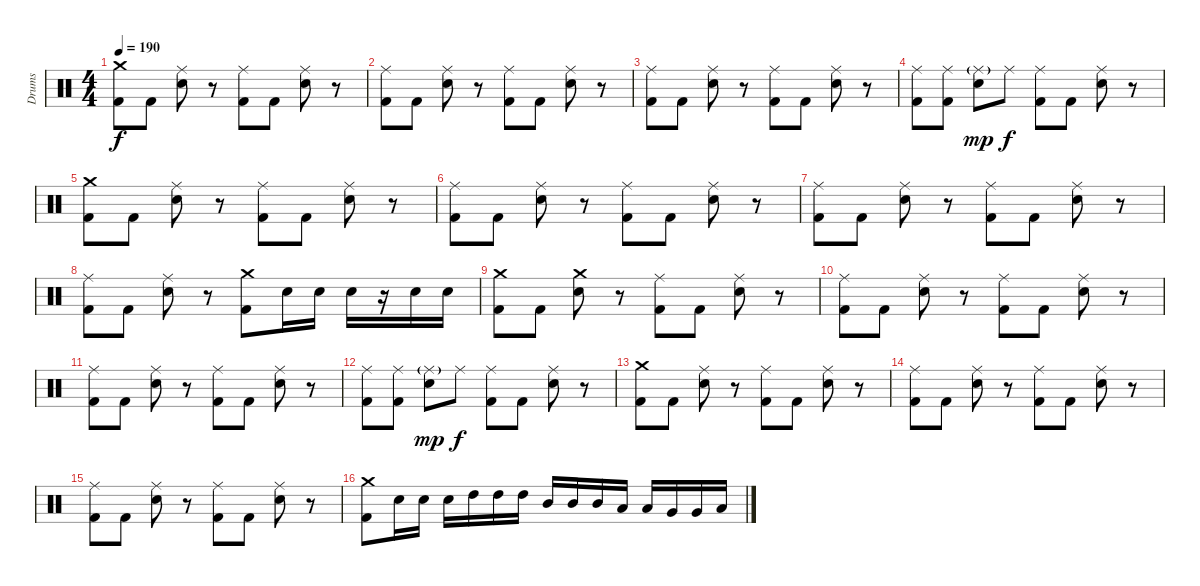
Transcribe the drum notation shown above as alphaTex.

\track ("Drums" "Drums") {instrument percussion}
\staff {score}
\articulation defaults
\ts (4 4)
\tempo 190
\clef neutral
\ks c
("Crash medium (hit)" "Kick (hit) 2").8{dy f} "Kick (hit) 2".8 ("Ride (middle)" "Electric Snare (hit)").8 r.8 ("Ride (middle)" "Kick (hit) 2").8 "Kick (hit) 2".8 ("Ride (middle)" "Electric Snare (hit)").8 r.8 |
("Ride (middle)" "Kick (hit) 2").8 "Kick (hit) 2".8 ("Ride (middle)" "Electric Snare (hit)").8 r.8 ("Ride (middle)" "Kick (hit) 2").8 "Kick (hit) 2".8 ("Ride (middle)" "Electric Snare (hit)").8 r.8 |
("Ride (middle)" "Kick (hit) 2").8 "Kick (hit) 2".8 ("Ride (middle)" "Electric Snare (hit)").8 r.8 ("Ride (middle)" "Kick (hit) 2").8 "Kick (hit) 2".8 ("Ride (middle)" "Electric Snare (hit)").8 r.8 |
("Ride (middle)" "Kick (hit) 2").8 ("Ride (middle)" "Kick (hit) 2").8 ("Ride (middle)"{g} "Electric Snare (hit)").8{dy mp} "Ride (middle)".8{dy f} ("Ride (middle)" "Kick (hit) 2").8 "Kick (hit) 2".8 ("Ride (middle)" "Electric Snare (hit)").8 r.8 |
("Crash medium (hit)" "Kick (hit) 2").8 "Kick (hit) 2".8 ("Ride (middle)" "Electric Snare (hit)").8 r.8 ("Ride (middle)" "Kick (hit) 2").8 "Kick (hit) 2".8 ("Ride (middle)" "Electric Snare (hit)").8 r.8 |
("Ride (middle)" "Kick (hit) 2").8 "Kick (hit) 2".8 ("Ride (middle)" "Electric Snare (hit)").8 r.8 ("Ride (middle)" "Kick (hit) 2").8 "Kick (hit) 2".8 ("Ride (middle)" "Electric Snare (hit)").8 r.8 |
("Ride (middle)" "Kick (hit) 2").8 "Kick (hit) 2".8 ("Ride (middle)" "Electric Snare (hit)").8 r.8 ("Ride (middle)" "Kick (hit) 2").8 "Kick (hit) 2".8 ("Ride (middle)" "Electric Snare (hit)").8 r.8 |
("Ride (middle)" "Kick (hit) 2").8 "Kick (hit) 2".8 ("Ride (middle)" "Electric Snare (hit)").8 r.8 ("Crash medium (hit)" "Kick (hit) 2").8 "Electric Snare (hit)".16 "Electric Snare (hit)".16 "Electric Snare (hit)".16 r.16 "Electric Snare (hit)".16 "Electric Snare (hit)".16 |
("Crash medium (hit)" "Kick (hit) 2").8 "Kick (hit) 2".8 ("Crash medium (hit)" "Electric Snare (hit)").8 r.8 ("Ride (middle)" "Kick (hit) 2").8 "Kick (hit) 2".8 ("Ride (middle)" "Electric Snare (hit)").8 r.8 |
("Ride (middle)" "Kick (hit) 2").8 "Kick (hit) 2".8 ("Ride (middle)" "Electric Snare (hit)").8 r.8 ("Ride (middle)" "Kick (hit) 2").8 "Kick (hit) 2".8 ("Ride (middle)" "Electric Snare (hit)").8 r.8 |
("Ride (middle)" "Kick (hit) 2").8 "Kick (hit) 2".8 ("Ride (middle)" "Electric Snare (hit)").8 r.8 ("Ride (middle)" "Kick (hit) 2").8 "Kick (hit) 2".8 ("Ride (middle)" "Electric Snare (hit)").8 r.8 |
("Ride (middle)" "Kick (hit) 2").8 ("Ride (middle)" "Kick (hit) 2").8 ("Ride (middle)"{g} "Electric Snare (hit)").8{dy mp} "Ride (middle)".8{dy f} ("Ride (middle)" "Kick (hit) 2").8 "Kick (hit) 2".8 ("Ride (middle)" "Electric Snare (hit)").8 r.8 |
("Crash medium (hit)" "Kick (hit) 2").8 "Kick (hit) 2".8 ("Ride (middle)" "Electric Snare (hit)").8 r.8 ("Ride (middle)" "Kick (hit) 2").8 "Kick (hit) 2".8 ("Ride (middle)" "Electric Snare (hit)").8 r.8 |
("Ride (middle)" "Kick (hit) 2").8 "Kick (hit) 2".8 ("Ride (middle)" "Electric Snare (hit)").8 r.8 ("Ride (middle)" "Kick (hit) 2").8 "Kick (hit) 2".8 ("Ride (middle)" "Electric Snare (hit)").8 r.8 |
("Ride (middle)" "Kick (hit) 2").8 "Kick (hit) 2".8 ("Ride (middle)" "Electric Snare (hit)").8 r.8 ("Ride (middle)" "Kick (hit) 2").8 "Kick (hit) 2".8 ("Ride (middle)" "Electric Snare (hit)").8 r.8 |
("Crash medium (hit)" "Kick (hit) 2").8 "Electric Snare (hit)".16 "Electric Snare (hit)".16 "Electric Snare (hit)".16 "High Tom (hit)".16 "High Tom (hit)".16 "High Tom (hit)".16 "Mid Tom (hit)".16 "Mid Tom (hit)".16 "Mid Tom (hit)".16 "Low Tom (hit)".16 "Low Tom (hit)".16 "Very Low Tom (hit)".16 "Very Low Tom (hit)".16 "Low Floor Tom (hit)".16
